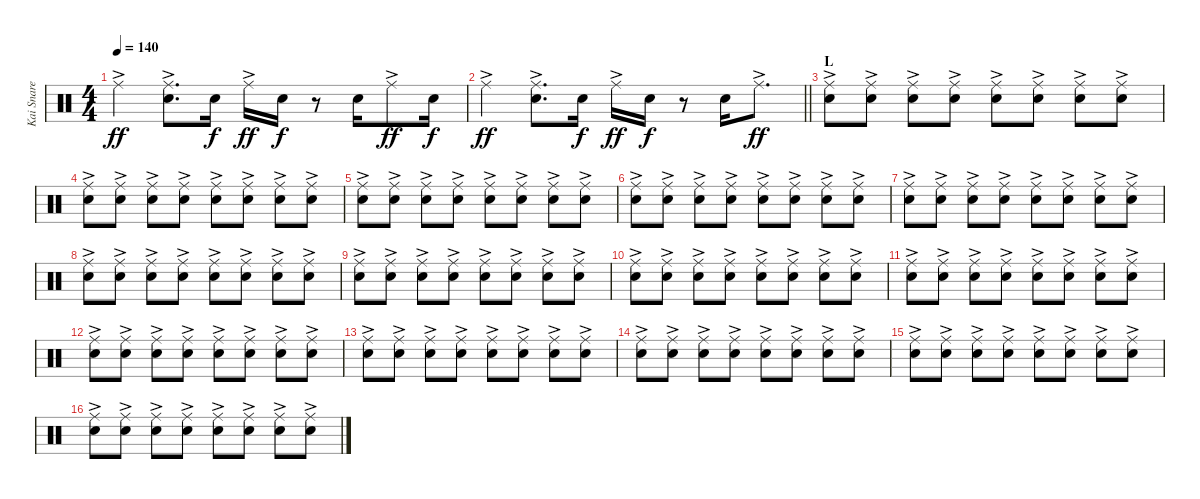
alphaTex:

\track ("Kai Snare" "Kai Snare") {instrument percussion}
\staff {score}
\articulation defaults
\ts (4 4)
\tempo 140
\clef neutral
\ks c "Ride (middle)"{ac}.4{dy ff}
("Ride (middle)"{ac} "Snare (hit) 2").8{d} "Snare (hit) 2".16{dy f} "Ride (middle)"{ac}.16{dy ff} "Snare (hit) 2".16{dy f} r.8 "Snare (hit) 2".16 "Ride (middle)"{ac}.8{dy ff} "Snare (hit) 2".16{dy f} |
\barLineRight lightlight "Ride (middle)"{ac}.4{dy ff}
("Ride (middle)"{ac} "Snare (hit) 2").8{d} "Snare (hit) 2".16{dy f} "Ride (middle)"{ac}.16{dy ff} "Snare (hit) 2".16{dy f} r.8 "Snare (hit) 2".16 "Ride (middle)"{ac}.8{d dy ff} |
\section ("" "L")
("Ride (middle)"{ac} "Snare (hit) 2").8 ("Ride (middle)"{ac} "Snare (hit) 2").8 ("Ride (middle)"{ac} "Snare (hit) 2").8 ("Ride (middle)"{ac} "Snare (hit) 2").8 ("Ride (middle)"{ac} "Snare (hit) 2").8 ("Ride (middle)"{ac} "Snare (hit) 2").8 ("Ride (middle)"{ac} "Snare (hit) 2").8 ("Ride (middle)"{ac} "Snare (hit) 2").8 |
("Ride (middle)"{ac} "Snare (hit) 2").8 ("Ride (middle)"{ac} "Snare (hit) 2").8 ("Ride (middle)"{ac} "Snare (hit) 2").8 ("Ride (middle)"{ac} "Snare (hit) 2").8 ("Ride (middle)"{ac} "Snare (hit) 2").8 ("Ride (middle)"{ac} "Snare (hit) 2").8 ("Ride (middle)"{ac} "Snare (hit) 2").8 ("Ride (middle)"{ac} "Snare (hit) 2").8 |
("Ride (middle)"{ac} "Snare (hit) 2").8 ("Ride (middle)"{ac} "Snare (hit) 2").8 ("Ride (middle)"{ac} "Snare (hit) 2").8 ("Ride (middle)"{ac} "Snare (hit) 2").8 ("Ride (middle)"{ac} "Snare (hit) 2").8 ("Ride (middle)"{ac} "Snare (hit) 2").8 ("Ride (middle)"{ac} "Snare (hit) 2").8 ("Ride (middle)"{ac} "Snare (hit) 2").8 |
("Ride (middle)"{ac} "Snare (hit) 2").8 ("Ride (middle)"{ac} "Snare (hit) 2").8 ("Ride (middle)"{ac} "Snare (hit) 2").8 ("Ride (middle)"{ac} "Snare (hit) 2").8 ("Ride (middle)"{ac} "Snare (hit) 2").8 ("Ride (middle)"{ac} "Snare (hit) 2").8 ("Ride (middle)"{ac} "Snare (hit) 2").8 ("Ride (middle)"{ac} "Snare (hit) 2").8 |
("Ride (middle)"{ac} "Snare (hit) 2").8 ("Ride (middle)"{ac} "Snare (hit) 2").8 ("Ride (middle)"{ac} "Snare (hit) 2").8 ("Ride (middle)"{ac} "Snare (hit) 2").8 ("Ride (middle)"{ac} "Snare (hit) 2").8 ("Ride (middle)"{ac} "Snare (hit) 2").8 ("Ride (middle)"{ac} "Snare (hit) 2").8 ("Ride (middle)"{ac} "Snare (hit) 2").8 |
("Ride (middle)"{ac} "Snare (hit) 2").8 ("Ride (middle)"{ac} "Snare (hit) 2").8 ("Ride (middle)"{ac} "Snare (hit) 2").8 ("Ride (middle)"{ac} "Snare (hit) 2").8 ("Ride (middle)"{ac} "Snare (hit) 2").8 ("Ride (middle)"{ac} "Snare (hit) 2").8 ("Ride (middle)"{ac} "Snare (hit) 2").8 ("Ride (middle)"{ac} "Snare (hit) 2").8 |
("Ride (middle)"{ac} "Snare (hit) 2").8 ("Ride (middle)"{ac} "Snare (hit) 2").8 ("Ride (middle)"{ac} "Snare (hit) 2").8 ("Ride (middle)"{ac} "Snare (hit) 2").8 ("Ride (middle)"{ac} "Snare (hit) 2").8 ("Ride (middle)"{ac} "Snare (hit) 2").8 ("Ride (middle)"{ac} "Snare (hit) 2").8 ("Ride (middle)"{ac} "Snare (hit) 2").8 |
("Ride (middle)"{ac} "Snare (hit) 2").8 ("Ride (middle)"{ac} "Snare (hit) 2").8 ("Ride (middle)"{ac} "Snare (hit) 2").8 ("Ride (middle)"{ac} "Snare (hit) 2").8 ("Ride (middle)"{ac} "Snare (hit) 2").8 ("Ride (middle)"{ac} "Snare (hit) 2").8 ("Ride (middle)"{ac} "Snare (hit) 2").8 ("Ride (middle)"{ac} "Snare (hit) 2").8 |
("Ride (middle)"{ac} "Snare (hit) 2").8 ("Ride (middle)"{ac} "Snare (hit) 2").8 ("Ride (middle)"{ac} "Snare (hit) 2").8 ("Ride (middle)"{ac} "Snare (hit) 2").8 ("Ride (middle)"{ac} "Snare (hit) 2").8 ("Ride (middle)"{ac} "Snare (hit) 2").8 ("Ride (middle)"{ac} "Snare (hit) 2").8 ("Ride (middle)"{ac} "Snare (hit) 2").8 |
("Ride (middle)"{ac} "Snare (hit) 2").8 ("Ride (middle)"{ac} "Snare (hit) 2").8 ("Ride (middle)"{ac} "Snare (hit) 2").8 ("Ride (middle)"{ac} "Snare (hit) 2").8 ("Ride (middle)"{ac} "Snare (hit) 2").8 ("Ride (middle)"{ac} "Snare (hit) 2").8 ("Ride (middle)"{ac} "Snare (hit) 2").8 ("Ride (middle)"{ac} "Snare (hit) 2").8 |
("Ride (middle)"{ac} "Snare (hit) 2").8 ("Ride (middle)"{ac} "Snare (hit) 2").8 ("Ride (middle)"{ac} "Snare (hit) 2").8 ("Ride (middle)"{ac} "Snare (hit) 2").8 ("Ride (middle)"{ac} "Snare (hit) 2").8 ("Ride (middle)"{ac} "Snare (hit) 2").8 ("Ride (middle)"{ac} "Snare (hit) 2").8 ("Ride (middle)"{ac} "Snare (hit) 2").8 |
("Ride (middle)"{ac} "Snare (hit) 2").8 ("Ride (middle)"{ac} "Snare (hit) 2").8 ("Ride (middle)"{ac} "Snare (hit) 2").8 ("Ride (middle)"{ac} "Snare (hit) 2").8 ("Ride (middle)"{ac} "Snare (hit) 2").8 ("Ride (middle)"{ac} "Snare (hit) 2").8 ("Ride (middle)"{ac} "Snare (hit) 2").8 ("Ride (middle)"{ac} "Snare (hit) 2").8 |
("Ride (middle)"{ac} "Snare (hit) 2").8 ("Ride (middle)"{ac} "Snare (hit) 2").8 ("Ride (middle)"{ac} "Snare (hit) 2").8 ("Ride (middle)"{ac} "Snare (hit) 2").8 ("Ride (middle)"{ac} "Snare (hit) 2").8 ("Ride (middle)"{ac} "Snare (hit) 2").8 ("Ride (middle)"{ac} "Snare (hit) 2").8 ("Ride (middle)"{ac} "Snare (hit) 2").8 |
("Ride (middle)"{ac} "Snare (hit) 2").8 ("Ride (middle)"{ac} "Snare (hit) 2").8 ("Ride (middle)"{ac} "Snare (hit) 2").8 ("Ride (middle)"{ac} "Snare (hit) 2").8 ("Ride (middle)"{ac} "Snare (hit) 2").8 ("Ride (middle)"{ac} "Snare (hit) 2").8 ("Ride (middle)"{ac} "Snare (hit) 2").8 ("Ride (middle)"{ac} "Snare (hit) 2").8
